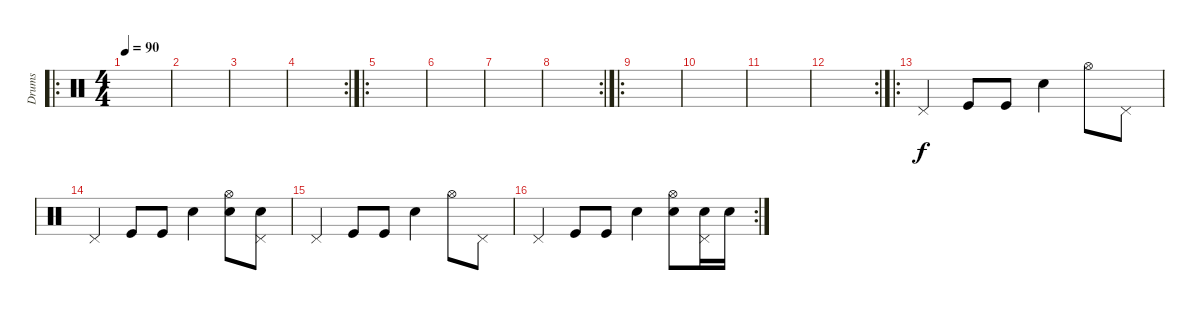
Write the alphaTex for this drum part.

\track ("Drums" "Drums") {instrument percussion}
\staff {score}
\articulation defaults
\ro
\ts (4 4)
\tempo 90
\clef neutral
\ks c
|
|
|
\rc 2
|
\ro
|
|
|
\rc 2
|
\ro
|
|
|
\rc 2
|
\ro "Pedal Hi-Hat (hit)".4 "Kick (hit)".8 "Kick (hit)".8 "Electric Snare (hit)".4 "Hi-Hat (open)".8 "Pedal Hi-Hat (hit)".8
|
"Pedal Hi-Hat (hit)".4 "Kick (hit)".8 "Kick (hit)".8 "Electric Snare (hit)".4 ("Hi-Hat (open)" "Electric Snare (hit)").8 ("Pedal Hi-Hat (hit)" "Electric Snare (hit)").8 |
"Pedal Hi-Hat (hit)".4 "Kick (hit)".8 "Kick (hit)".8 "Electric Snare (hit)".4 "Hi-Hat (open)".8 "Pedal Hi-Hat (hit)".8 |
\rc 2 "Pedal Hi-Hat (hit)".4 "Kick (hit)".8 "Kick (hit)".8 "Electric Snare (hit)".4
("Hi-Hat (open)" "Electric Snare (hit)").8 ("Pedal Hi-Hat (hit)" "Electric Snare (hit)").16 "Electric Snare (hit)".16
